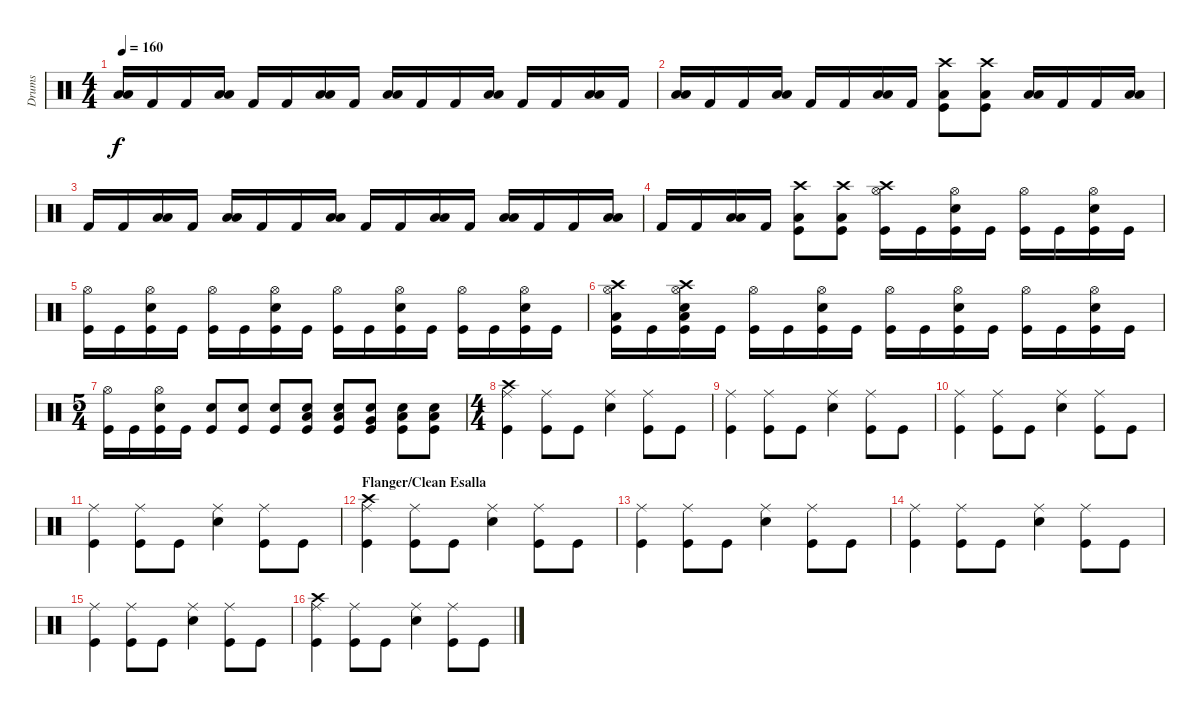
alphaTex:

\track ("Drums" "Drums") {instrument percussion}
\staff {score}
\articulation defaults
\ts (4 4)
\tempo 160
\clef neutral
\ks c
("Low Tom (hit)" "Low Floor Tom (hit)").16{dy f} "Kick (hit) 2".16 "Kick (hit) 2".16 ("Low Tom (hit)" "Low Floor Tom (hit)").16 "Kick (hit) 2".16 "Kick (hit) 2".16 ("Low Tom (hit)" "Low Floor Tom (hit)").16 "Kick (hit) 2".16 ("Low Tom (hit)" "Low Floor Tom (hit)").16 "Kick (hit) 2".16 "Kick (hit) 2".16 ("Low Tom (hit)" "Low Floor Tom (hit)").16 "Kick (hit) 2".16 "Kick (hit) 2".16 ("Low Tom (hit)" "Low Floor Tom (hit)").16 "Kick (hit) 2".16 |
("Low Tom (hit)" "Low Floor Tom (hit)").16 "Kick (hit) 2".16 "Kick (hit) 2".16 ("Low Tom (hit)" "Low Floor Tom (hit)").16 "Kick (hit) 2".16 "Kick (hit) 2".16 ("Low Tom (hit)" "Low Floor Tom (hit)").16 "Kick (hit) 2".16 ("Low Floor Tom (hit)" "Kick (hit)" "Crash high (hit)").8 ("Low Floor Tom (hit)" "Kick (hit)" "Crash high (hit)").8 ("Low Tom (hit)" "Low Floor Tom (hit)").16 "Kick (hit) 2".16 "Kick (hit) 2".16 ("Low Tom (hit)" "Low Floor Tom (hit)").16 |
"Kick (hit) 2".16 "Kick (hit) 2".16 ("Low Tom (hit)" "Low Floor Tom (hit)").16 "Kick (hit) 2".16 ("Low Tom (hit)" "Low Floor Tom (hit)").16 "Kick (hit) 2".16 "Kick (hit) 2".16 ("Low Tom (hit)" "Low Floor Tom (hit)").16 "Kick (hit) 2".16 "Kick (hit) 2".16 ("Low Tom (hit)" "Low Floor Tom (hit)").16 "Kick (hit) 2".16 ("Low Tom (hit)" "Low Floor Tom (hit)").16 "Kick (hit) 2".16 "Kick (hit) 2".16 ("Low Tom (hit)" "Low Floor Tom (hit)").16 |
"Kick (hit) 2".16 "Kick (hit) 2".16 ("Low Tom (hit)" "Low Floor Tom (hit)").16 "Kick (hit) 2".16 ("Low Floor Tom (hit)" "Kick (hit)" "Crash high (hit)").8 ("Low Floor Tom (hit)" "Kick (hit)" "Crash high (hit)").8 ("Crash high (hit)" "Hi-Hat (open)" "Kick (hit)").16 "Kick (hit)".16 ("Hi-Hat (open)" "Electric Snare (hit)" "Kick (hit)").16 "Kick (hit)".16 ("Hi-Hat (open)" "Kick (hit)").16 "Kick (hit)".16 ("Hi-Hat (open)" "Electric Snare (hit)" "Kick (hit)").16 "Kick (hit)".16 |
("Hi-Hat (open)" "Kick (hit)").16 "Kick (hit)".16 ("Hi-Hat (open)" "Electric Snare (hit)" "Kick (hit)").16 "Kick (hit)".16 ("Hi-Hat (open)" "Kick (hit)").16 "Kick (hit)".16 ("Hi-Hat (open)" "Electric Snare (hit)" "Kick (hit)").16 "Kick (hit)".16 ("Hi-Hat (open)" "Kick (hit)").16 "Kick (hit)".16 ("Hi-Hat (open)" "Electric Snare (hit)" "Kick (hit)").16 "Kick (hit)".16 ("Hi-Hat (open)" "Kick (hit)").16 "Kick (hit)".16 ("Hi-Hat (open)" "Electric Snare (hit)" "Kick (hit)").16 "Kick (hit)".16 |
("Low Floor Tom (hit)" "Kick (hit)" "Crash high (hit)" "Hi-Hat (open)").16 "Kick (hit)".16 ("Low Floor Tom (hit)" "Kick (hit)" "Crash high (hit)" "Hi-Hat (open)" "Electric Snare (hit)").16 "Kick (hit)".16 ("Hi-Hat (open)" "Kick (hit)").16 "Kick (hit)".16 ("Hi-Hat (open)" "Electric Snare (hit)" "Kick (hit)").16 "Kick (hit)".16 ("Hi-Hat (open)" "Kick (hit)").16 "Kick (hit)".16 ("Hi-Hat (open)" "Electric Snare (hit)" "Kick (hit)").16 "Kick (hit)".16 ("Hi-Hat (open)" "Kick (hit)").16 "Kick (hit)".16 ("Hi-Hat (open)" "Electric Snare (hit)" "Kick (hit)").16 "Kick (hit)".16 |
\ts (5 4)
("Hi-Hat (open)" "Kick (hit)").16 "Kick (hit)".16 ("Hi-Hat (open)" "Electric Snare (hit)" "Kick (hit)").16 "Kick (hit)".16 ("Snare (hit) 2" "Kick (hit)").8 ("Snare (hit) 2" "Kick (hit)").8 ("Snare (hit) 2" "Kick (hit)").8 ("Snare (hit) 2" "Low Floor Tom (hit)" "Kick (hit)").8 ("Low Tom (hit)" "Snare (hit) 2" "Kick (hit)").8 ("Very Low Tom (hit)" "Snare (hit) 2" "Kick (hit)").8 ("Low Tom (hit)" "Snare (hit) 2" "Kick (hit)").8 ("Snare (hit) 2" "Low Floor Tom (hit)" "Kick (hit)").8 |
\ts (4 4)
("Crash high (hit)" "Ride (middle)" "Kick (hit)").4 ("Ride (middle)" "Kick (hit)").8 "Kick (hit)".8 ("Ride (middle)" "Snare (hit) 2").4 ("Ride (middle)" "Kick (hit)").8 "Kick (hit)".8 |
("Ride (middle)" "Kick (hit)").4 ("Ride (middle)" "Kick (hit)").8 "Kick (hit)".8 ("Ride (middle)" "Snare (hit) 2").4 ("Ride (middle)" "Kick (hit)").8 "Kick (hit)".8 |
("Ride (middle)" "Kick (hit)").4 ("Ride (middle)" "Kick (hit)").8 "Kick (hit)".8 ("Ride (middle)" "Snare (hit) 2").4 ("Ride (middle)" "Kick (hit)").8 "Kick (hit)".8 |
("Ride (middle)" "Kick (hit)").4 ("Ride (middle)" "Kick (hit)").8 "Kick (hit)".8 ("Ride (middle)" "Snare (hit) 2").4 ("Ride (middle)" "Kick (hit)").8 "Kick (hit)".8 |
\section ("" "Flanger/Clean Esalla")
("Crash high (hit)" "Ride (middle)" "Kick (hit)").4 ("Ride (middle)" "Kick (hit)").8 "Kick (hit)".8 ("Ride (middle)" "Snare (hit) 2").4 ("Ride (middle)" "Kick (hit)").8 "Kick (hit)".8 |
("Ride (middle)" "Kick (hit)").4 ("Ride (middle)" "Kick (hit)").8 "Kick (hit)".8 ("Ride (middle)" "Snare (hit) 2").4 ("Ride (middle)" "Kick (hit)").8 "Kick (hit)".8 |
("Ride (middle)" "Kick (hit)").4 ("Ride (middle)" "Kick (hit)").8 "Kick (hit)".8 ("Ride (middle)" "Snare (hit) 2").4 ("Ride (middle)" "Kick (hit)").8 "Kick (hit)".8 |
("Ride (middle)" "Kick (hit)").4 ("Ride (middle)" "Kick (hit)").8 "Kick (hit)".8 ("Ride (middle)" "Snare (hit) 2").4 ("Ride (middle)" "Kick (hit)").8 "Kick (hit)".8 |
("Crash high (hit)" "Ride (middle)" "Kick (hit)").4 ("Ride (middle)" "Kick (hit)").8 "Kick (hit)".8 ("Ride (middle)" "Snare (hit) 2").4 ("Ride (middle)" "Kick (hit)").8 "Kick (hit)".8
